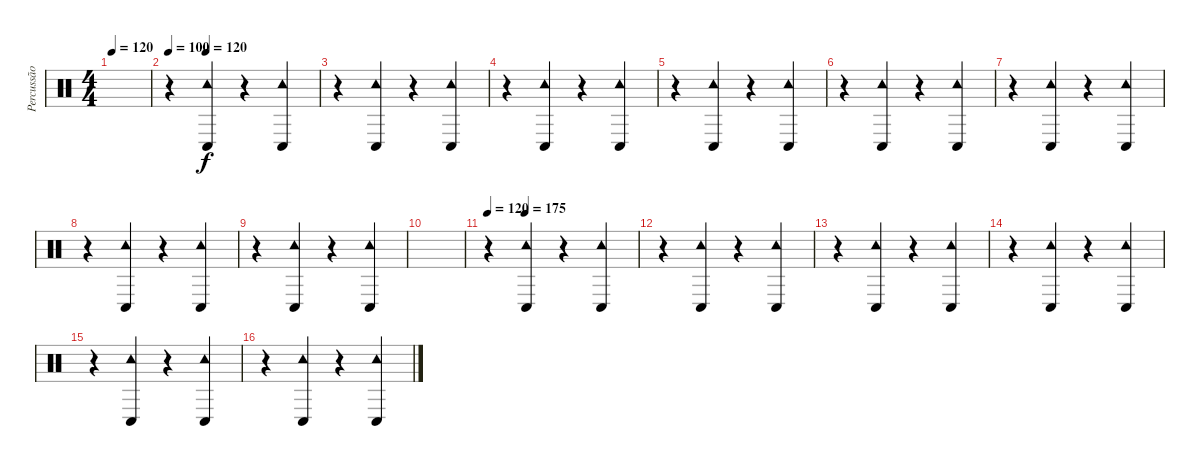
\track ("Percussão" "Percussão") {instrument percussion}
\staff {score}
\articulation defaults
\ts (4 4)
\tempo 120
\clef neutral
\ks c
|
\tempo 100
\tempo (120 0.25)
r.4 ("Conga low (hit)" "Tambourine (hit)").4 r.4 ("Conga low (hit)" "Tambourine (hit)").4 |
r.4 ("Conga low (hit)" "Tambourine (hit)").4 r.4 ("Conga low (hit)" "Tambourine (hit)").4 |
r.4 ("Conga low (hit)" "Tambourine (hit)").4 r.4 ("Conga low (hit)" "Tambourine (hit)").4 |
r.4 ("Conga low (hit)" "Tambourine (hit)").4 r.4 ("Conga low (hit)" "Tambourine (hit)").4 |
r.4 ("Conga low (hit)" "Tambourine (hit)").4 r.4 ("Conga low (hit)" "Tambourine (hit)").4 |
r.4 ("Conga low (hit)" "Tambourine (hit)").4 r.4 ("Conga low (hit)" "Tambourine (hit)").4 |
r.4 ("Conga low (hit)" "Tambourine (hit)").4 r.4 ("Conga low (hit)" "Tambourine (hit)").4 |
r.4 ("Conga low (hit)" "Tambourine (hit)").4 r.4 ("Conga low (hit)" "Tambourine (hit)").4 |
|
\tempo 120
\tempo (175 0.25)
r.4 ("Conga low (hit)" "Tambourine (hit)").4 r.4 ("Conga low (hit)" "Tambourine (hit)").4 |
r.4 ("Conga low (hit)" "Tambourine (hit)").4 r.4 ("Conga low (hit)" "Tambourine (hit)").4 |
r.4 ("Conga low (hit)" "Tambourine (hit)").4 r.4 ("Conga low (hit)" "Tambourine (hit)").4 |
r.4 ("Conga low (hit)" "Tambourine (hit)").4 r.4 ("Conga low (hit)" "Tambourine (hit)").4 |
r.4 ("Conga low (hit)" "Tambourine (hit)").4 r.4 ("Conga low (hit)" "Tambourine (hit)").4 |
r.4 ("Conga low (hit)" "Tambourine (hit)").4 r.4 ("Conga low (hit)" "Tambourine (hit)").4
